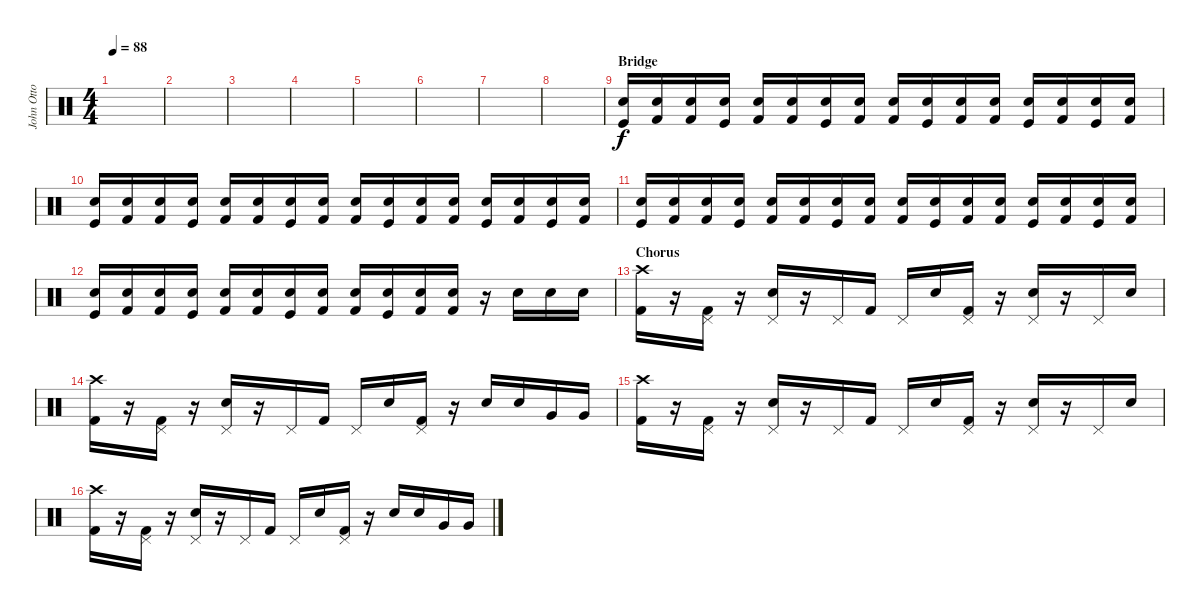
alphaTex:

\track ("John Otto" "John Otto") {instrument percussion}
\staff {score}
\articulation defaults
\ts (4 4)
\tempo 88
\clef neutral
\ks c
|
|
|
|
|
|
|
|
\section ("" "Bridge")
("Electric Snare (hit)" "Kick (hit)").16 ("Snare (hit) 2" "Kick (hit) 2").16 ("Snare (hit) 2" "Kick (hit) 2").16 ("Electric Snare (hit)" "Kick (hit)").16 ("Snare (hit) 2" "Kick (hit) 2").16 ("Snare (hit) 2" "Kick (hit) 2").16 ("Electric Snare (hit)" "Kick (hit)").16 ("Snare (hit) 2" "Kick (hit) 2").16 ("Snare (hit) 2" "Kick (hit) 2").16 ("Electric Snare (hit)" "Kick (hit)").16 ("Snare (hit) 2" "Kick (hit) 2").16 ("Snare (hit) 2" "Kick (hit) 2").16 ("Electric Snare (hit)" "Kick (hit)").16 ("Snare (hit) 2" "Kick (hit) 2").16 ("Electric Snare (hit)" "Kick (hit)").16 ("Snare (hit) 2" "Kick (hit) 2").16 |
("Electric Snare (hit)" "Kick (hit)").16 ("Snare (hit) 2" "Kick (hit) 2").16 ("Snare (hit) 2" "Kick (hit) 2").16 ("Electric Snare (hit)" "Kick (hit)").16 ("Snare (hit) 2" "Kick (hit) 2").16 ("Snare (hit) 2" "Kick (hit) 2").16 ("Electric Snare (hit)" "Kick (hit)").16 ("Snare (hit) 2" "Kick (hit) 2").16 ("Snare (hit) 2" "Kick (hit) 2").16 ("Electric Snare (hit)" "Kick (hit)").16 ("Snare (hit) 2" "Kick (hit) 2").16 ("Snare (hit) 2" "Kick (hit) 2").16 ("Electric Snare (hit)" "Kick (hit)").16 ("Snare (hit) 2" "Kick (hit) 2").16 ("Electric Snare (hit)" "Kick (hit)").16 ("Snare (hit) 2" "Kick (hit) 2").16 |
("Electric Snare (hit)" "Kick (hit)").16 ("Snare (hit) 2" "Kick (hit) 2").16 ("Snare (hit) 2" "Kick (hit) 2").16 ("Electric Snare (hit)" "Kick (hit)").16 ("Snare (hit) 2" "Kick (hit) 2").16 ("Snare (hit) 2" "Kick (hit) 2").16 ("Electric Snare (hit)" "Kick (hit)").16 ("Snare (hit) 2" "Kick (hit) 2").16 ("Snare (hit) 2" "Kick (hit) 2").16 ("Electric Snare (hit)" "Kick (hit)").16 ("Snare (hit) 2" "Kick (hit) 2").16 ("Snare (hit) 2" "Kick (hit) 2").16 ("Electric Snare (hit)" "Kick (hit)").16 ("Snare (hit) 2" "Kick (hit) 2").16 ("Electric Snare (hit)" "Kick (hit)").16 ("Snare (hit) 2" "Kick (hit) 2").16 |
("Electric Snare (hit)" "Kick (hit)").16 ("Snare (hit) 2" "Kick (hit) 2").16 ("Snare (hit) 2" "Kick (hit) 2").16 ("Electric Snare (hit)" "Kick (hit)").16 ("Snare (hit) 2" "Kick (hit) 2").16 ("Snare (hit) 2" "Kick (hit) 2").16 ("Electric Snare (hit)" "Kick (hit)").16 ("Snare (hit) 2" "Kick (hit) 2").16 ("Snare (hit) 2" "Kick (hit) 2").16 ("Electric Snare (hit)" "Kick (hit)").16 ("Snare (hit) 2" "Kick (hit) 2").16 ("Snare (hit) 2" "Kick (hit) 2").16 r.16 "Electric Snare (hit)".16 "Electric Snare (hit)".16 "Electric Snare (hit)".16 |
\section ("" "Chorus")
("Crash high (hit)" "Kick (hit) 2").16 r.16 ("Pedal Hi-Hat (hit)" "Kick (hit) 2").16 r.16 ("Pedal Hi-Hat (hit)" "Snare (hit) 2").16 r.16 "Pedal Hi-Hat (hit)".16 "Kick (hit) 2".16 "Pedal Hi-Hat (hit)".16 "Snare (hit) 2".16 ("Pedal Hi-Hat (hit)" "Kick (hit) 2").16 r.16 ("Pedal Hi-Hat (hit)" "Snare (hit) 2").16 r.16 "Pedal Hi-Hat (hit)".16 "Electric Snare (hit)".16 |
("Crash high (hit)" "Kick (hit) 2").16 r.16 ("Pedal Hi-Hat (hit)" "Kick (hit) 2").16 r.16 ("Pedal Hi-Hat (hit)" "Snare (hit) 2").16 r.16 "Pedal Hi-Hat (hit)".16 "Kick (hit) 2".16 "Pedal Hi-Hat (hit)".16 "Snare (hit) 2".16 ("Pedal Hi-Hat (hit)" "Kick (hit) 2").16 r.16 "Electric Snare (hit)".16 "Electric Snare (hit)".16 "Very Low Tom (hit)".16 "Very Low Tom (hit)".16 |
("Crash high (hit)" "Kick (hit) 2").16 r.16 ("Pedal Hi-Hat (hit)" "Kick (hit) 2").16 r.16 ("Pedal Hi-Hat (hit)" "Snare (hit) 2").16 r.16 "Pedal Hi-Hat (hit)".16 "Kick (hit) 2".16 "Pedal Hi-Hat (hit)".16 "Snare (hit) 2".16 ("Pedal Hi-Hat (hit)" "Kick (hit) 2").16 r.16 ("Pedal Hi-Hat (hit)" "Snare (hit) 2").16 r.16 "Pedal Hi-Hat (hit)".16 "Electric Snare (hit)".16 |
("Crash high (hit)" "Kick (hit) 2").16 r.16 ("Pedal Hi-Hat (hit)" "Kick (hit) 2").16 r.16 ("Pedal Hi-Hat (hit)" "Snare (hit) 2").16 r.16 "Pedal Hi-Hat (hit)".16 "Kick (hit) 2".16 "Pedal Hi-Hat (hit)".16 "Snare (hit) 2".16 ("Pedal Hi-Hat (hit)" "Kick (hit) 2").16 r.16 "Electric Snare (hit)".16 "Electric Snare (hit)".16 "Very Low Tom (hit)".16 "Very Low Tom (hit)".16
